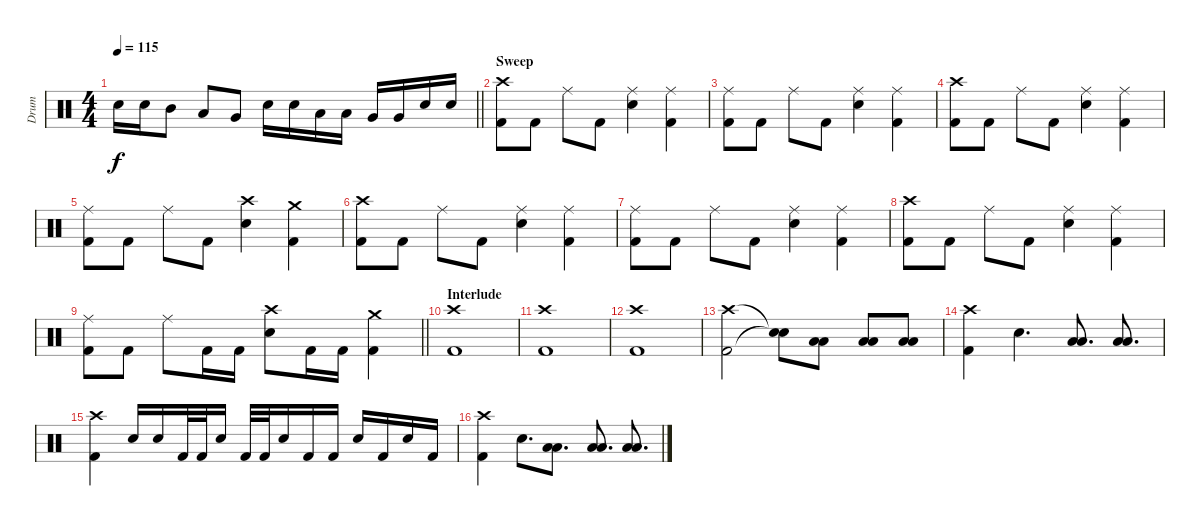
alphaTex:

\track ("Drum" "Drum") {instrument percussion}
\staff {score}
\articulation defaults
\ts (4 4)
\tempo 115
\clef neutral
\barLineRight lightlight
\ks c "Electric Snare (hit)".16{dy f} "Electric Snare (hit)".16 "Mid Tom (hit)".8 "Low Tom (hit)".8 "Very Low Tom (hit)".8 "Electric Snare (hit)".16 "Electric Snare (hit)".16 "Low Tom (hit)".16 "Low Tom (hit)".16 "Very Low Tom (hit)".16 "Very Low Tom (hit)".16 "Electric Snare (hit)".16 "Electric Snare (hit)".16
|
\section ("" "Sweep ")
("Kick (hit) 2" "Crash high (hit)").8 "Kick (hit) 2".8 "Ride (middle)".8 "Kick (hit) 2".8 ("Ride (middle)" "Electric Snare (hit)").4 ("Kick (hit) 2" "Ride (middle)").4 |
("Kick (hit) 2" "Ride (middle)").8 "Kick (hit) 2".8 "Ride (middle)".8 "Kick (hit) 2".8 ("Ride (middle)" "Electric Snare (hit)").4 ("Kick (hit) 2" "Ride (middle)").4 |
("Kick (hit) 2" "Crash high (hit)").8 "Kick (hit) 2".8 "Ride (middle)".8 "Kick (hit) 2".8 ("Ride (middle)" "Electric Snare (hit)").4 ("Kick (hit) 2" "Ride (middle)").4 |
("Kick (hit) 2" "Ride (middle)").8 "Kick (hit) 2".8 "Ride (middle)".8 "Kick (hit) 2".8 ("Crash high (hit)" "Electric Snare (hit)").4 ("Kick (hit) 2" "Crash medium (hit)").4 |
("Kick (hit) 2" "Crash high (hit)").8 "Kick (hit) 2".8 "Ride (middle)".8 "Kick (hit) 2".8 ("Ride (middle)" "Electric Snare (hit)").4 ("Kick (hit) 2" "Ride (middle)").4 |
("Kick (hit) 2" "Ride (middle)").8 "Kick (hit) 2".8 "Ride (middle)".8 "Kick (hit) 2".8 ("Ride (middle)" "Electric Snare (hit)").4 ("Kick (hit) 2" "Ride (middle)").4 |
("Kick (hit) 2" "Crash high (hit)").8 "Kick (hit) 2".8 "Ride (middle)".8 "Kick (hit) 2".8 ("Ride (middle)" "Electric Snare (hit)").4 ("Kick (hit) 2" "Ride (middle)").4 |
\barLineRight lightlight
("Kick (hit) 2" "Ride (middle)").8 "Kick (hit) 2".8 "Ride (middle)".8 "Kick (hit) 2".16 "Kick (hit) 2".16 ("Crash high (hit)" "Electric Snare (hit)").8 "Kick (hit) 2".16 "Kick (hit) 2".16 ("Kick (hit) 2" "Crash medium (hit)").4 |
\section ("" "Interlude")
("Kick (hit) 2" "Crash high (hit)").1 |
("Kick (hit) 2" "Crash high (hit)").1 |
("Kick (hit) 2" "Crash high (hit)").1 |
("Kick (hit) 2" "Crash high (hit)").2 ("Snare (hit)"{t} "Snare (hit)"{t}).8 ("Low Floor Tom (hit)" "Low Tom (hit)").8 ("Low Floor Tom (hit)" "Low Tom (hit)").8 ("Low Floor Tom (hit)" "Low Tom (hit)").8 |
("Kick (hit) 2" "Crash high (hit)").4 "Electric Snare (hit)".4{d} ("Low Floor Tom (hit)" "Low Tom (hit)").8{d} ("Low Floor Tom (hit)" "Low Tom (hit)").8{d} |
("Kick (hit) 2" "Crash high (hit)").4 "Electric Snare (hit)".16 "Electric Snare (hit)".16 "Kick (hit) 2".32 "Kick (hit) 2".32 "Electric Snare (hit)".16 "Kick (hit) 2".32 "Kick (hit) 2".32 "Electric Snare (hit)".16 "Kick (hit) 2".16 "Kick (hit) 2".16 "Electric Snare (hit)".16 "Kick (hit) 2".16 "Electric Snare (hit)".16 "Kick (hit) 2".16 |
("Kick (hit) 2" "Crash high (hit)").4 "Electric Snare (hit)".8{d} ("Low Floor Tom (hit)" "Low Tom (hit)").8{d} ("Low Floor Tom (hit)" "Low Tom (hit)").8{d} ("Low Floor Tom (hit)" "Low Tom (hit)").8{d}
